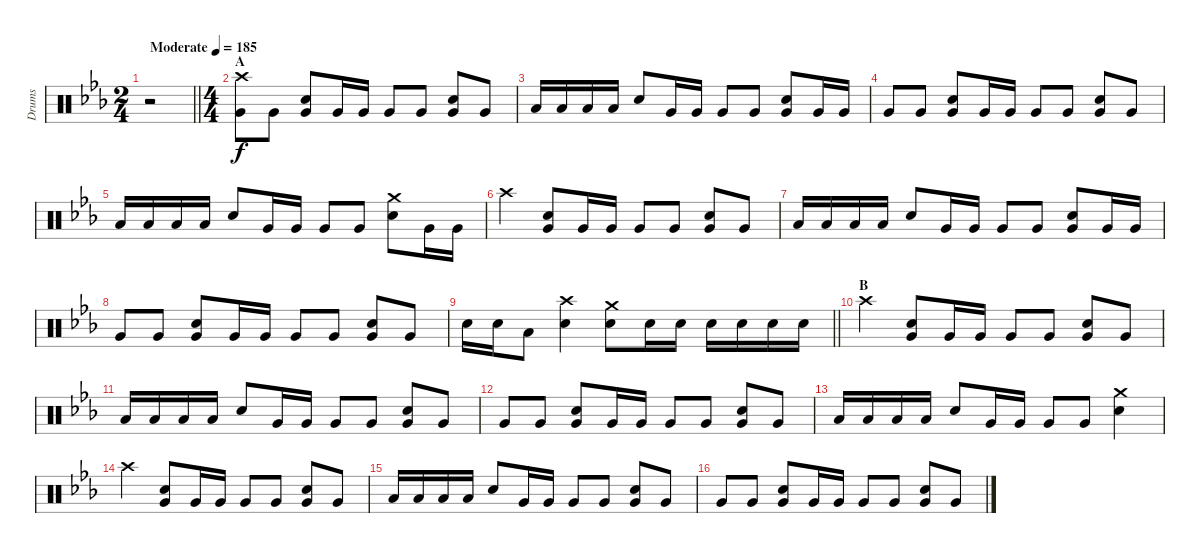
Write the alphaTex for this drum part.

\track ("Drums" "Drums") {instrument percussion}
\staff {score}
\articulation defaults
\ts (2 4)
\tempo (185 "Moderate")
\clef neutral
\barLineRight lightlight
\ks eb
r.2{dy f} |
\ts (4 4)
\section ("" "A")
("Crash high (hit)" "Very Low Tom (hit)").8 "Very Low Tom (hit)".8 ("Snare (hit) 2" "Very Low Tom (hit)").8 "Very Low Tom (hit)".16 "Very Low Tom (hit)".16 "Very Low Tom (hit)".8 "Very Low Tom (hit)".8 ("Snare (hit) 2" "Very Low Tom (hit)").8 "Very Low Tom (hit)".8 |
"Low Tom (hit)".16 "Low Tom (hit)".16 "Low Tom (hit)".16 "Low Tom (hit)".16 "Snare (hit) 2".8 "Very Low Tom (hit)".16 "Very Low Tom (hit)".16 "Very Low Tom (hit)".8 "Very Low Tom (hit)".8 ("Snare (hit) 2" "Very Low Tom (hit)").8 "Very Low Tom (hit)".16 "Very Low Tom (hit)".16 |
"Very Low Tom (hit)".8 "Very Low Tom (hit)".8 ("Very Low Tom (hit)" "Snare (hit) 2").8 "Very Low Tom (hit)".16 "Very Low Tom (hit)".16 "Very Low Tom (hit)".8 "Very Low Tom (hit)".8 ("Snare (hit) 2" "Very Low Tom (hit)").8 "Very Low Tom (hit)".8 |
"Low Tom (hit)".16 "Low Tom (hit)".16 "Low Tom (hit)".16 "Low Tom (hit)".16 "Snare (hit) 2".8 "Very Low Tom (hit)".16 "Very Low Tom (hit)".16 "Very Low Tom (hit)".8 "Very Low Tom (hit)".8 ("Crash medium (hit)" "Snare (hit) 2").8 "Very Low Tom (hit)".16 "Very Low Tom (hit)".16 |
"Crash high (hit)".4 ("Snare (hit) 2" "Very Low Tom (hit)").8 "Very Low Tom (hit)".16 "Very Low Tom (hit)".16 "Very Low Tom (hit)".8 "Very Low Tom (hit)".8 ("Snare (hit) 2" "Very Low Tom (hit)").8 "Very Low Tom (hit)".8 |
"Low Tom (hit)".16 "Low Tom (hit)".16 "Low Tom (hit)".16 "Low Tom (hit)".16 "Snare (hit) 2".8 "Very Low Tom (hit)".16 "Very Low Tom (hit)".16 "Very Low Tom (hit)".8 "Very Low Tom (hit)".8 ("Snare (hit) 2" "Very Low Tom (hit)").8 "Very Low Tom (hit)".16 "Very Low Tom (hit)".16 |
"Very Low Tom (hit)".8 "Very Low Tom (hit)".8 ("Snare (hit) 2" "Very Low Tom (hit)").8 "Very Low Tom (hit)".16 "Very Low Tom (hit)".16 "Very Low Tom (hit)".8 "Very Low Tom (hit)".8 ("Snare (hit) 2" "Very Low Tom (hit)").8 "Very Low Tom (hit)".8 |
\barLineRight lightlight "Snare (hit) 2".16 "Snare (hit) 2".16 "Low Tom (hit)".8
("Crash high (hit)" "Snare (hit) 2").4 ("Crash medium (hit)" "Snare (hit) 2").8 "Snare (hit) 2".16 "Snare (hit) 2".16 "Snare (hit) 2".16 "Snare (hit) 2".16 "Snare (hit) 2".16 "Snare (hit) 2".16 |
\section ("" "B")
"Crash high (hit)".4 ("Very Low Tom (hit)" "Snare (hit) 2").8 "Very Low Tom (hit)".16 "Very Low Tom (hit)".16 "Very Low Tom (hit)".8 "Very Low Tom (hit)".8 ("Snare (hit) 2" "Very Low Tom (hit)").8 "Very Low Tom (hit)".8 |
"Low Tom (hit)".16 "Low Tom (hit)".16 "Low Tom (hit)".16 "Low Tom (hit)".16 "Snare (hit) 2".8 "Very Low Tom (hit)".16 "Very Low Tom (hit)".16 "Very Low Tom (hit)".8 "Very Low Tom (hit)".8 ("Snare (hit) 2" "Very Low Tom (hit)").8 "Very Low Tom (hit)".8 |
"Very Low Tom (hit)".8 "Very Low Tom (hit)".8 ("Snare (hit) 2" "Very Low Tom (hit)").8 "Very Low Tom (hit)".16 "Very Low Tom (hit)".16 "Very Low Tom (hit)".8 "Very Low Tom (hit)".8 ("Snare (hit) 2" "Very Low Tom (hit)").8 "Very Low Tom (hit)".8 |
"Low Tom (hit)".16 "Low Tom (hit)".16 "Low Tom (hit)".16 "Low Tom (hit)".16 "Snare (hit) 2".8 "Very Low Tom (hit)".16 "Very Low Tom (hit)".16 "Very Low Tom (hit)".8 "Very Low Tom (hit)".8 ("Crash medium (hit)" "Snare (hit) 2").4 |
"Crash high (hit)".4 ("Very Low Tom (hit)" "Snare (hit) 2").8 "Very Low Tom (hit)".16 "Very Low Tom (hit)".16 "Very Low Tom (hit)".8 "Very Low Tom (hit)".8 ("Snare (hit) 2" "Very Low Tom (hit)").8 "Very Low Tom (hit)".8 |
"Low Tom (hit)".16 "Low Tom (hit)".16 "Low Tom (hit)".16 "Low Tom (hit)".16 "Snare (hit) 2".8 "Very Low Tom (hit)".16 "Very Low Tom (hit)".16 "Very Low Tom (hit)".8 "Very Low Tom (hit)".8 ("Snare (hit) 2" "Very Low Tom (hit)").8 "Very Low Tom (hit)".8 |
"Very Low Tom (hit)".8 "Very Low Tom (hit)".8 ("Snare (hit) 2" "Very Low Tom (hit)").8 "Very Low Tom (hit)".16 "Very Low Tom (hit)".16 "Very Low Tom (hit)".8 "Very Low Tom (hit)".8 ("Snare (hit) 2" "Very Low Tom (hit)").8 "Very Low Tom (hit)".8
